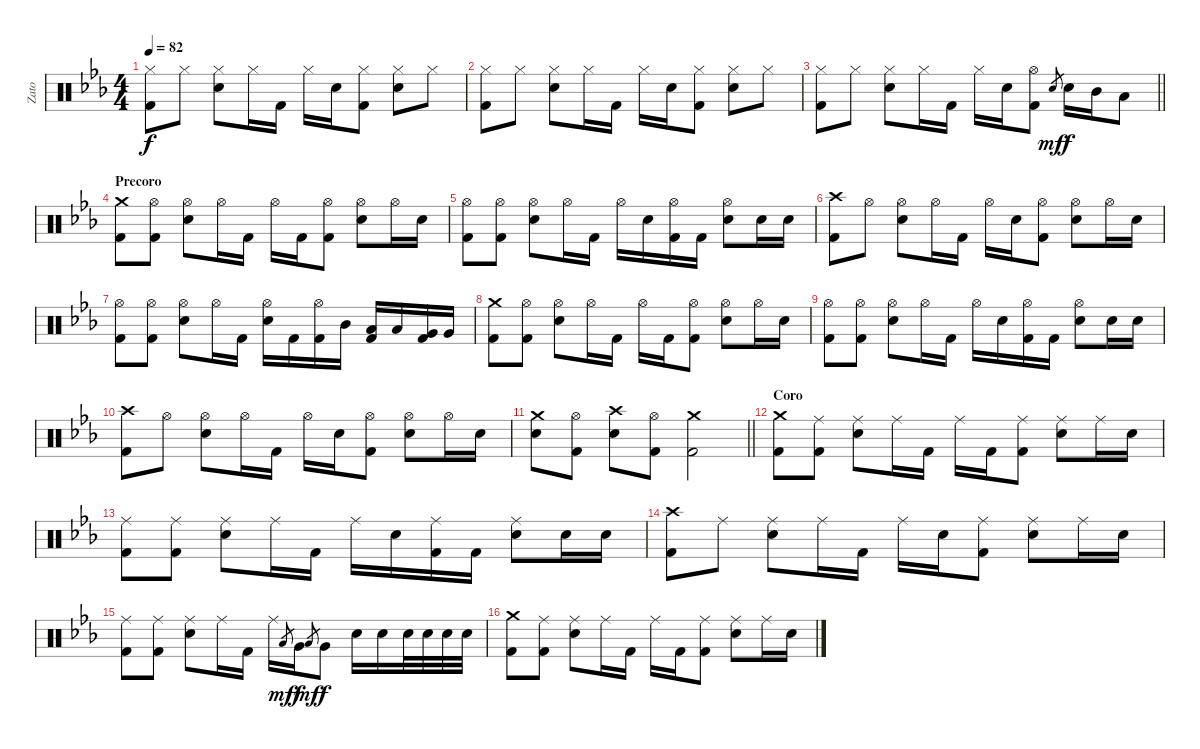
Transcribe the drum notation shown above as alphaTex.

\track ("Zato" "Zato") {instrument percussion}
\staff {score}
\articulation defaults
\ts (4 4)
\tempo 82
\clef neutral
\ks cminor
("Hi-Hat (closed)" "Kick (hit) 2").8{dy f} "Hi-Hat (closed)".8 ("Hi-Hat (closed)" "Electric Snare (hit)").8 "Hi-Hat (closed)".16 "Kick (hit) 2".16 "Hi-Hat (closed)".16 "Electric Snare (hit)".16 ("Hi-Hat (closed)" "Kick (hit) 2").8 ("Hi-Hat (closed)" "Electric Snare (hit)").8 "Hi-Hat (closed)".8 |
("Hi-Hat (closed)" "Kick (hit) 2").8 "Hi-Hat (closed)".8 ("Hi-Hat (closed)" "Electric Snare (hit)").8 "Hi-Hat (closed)".16 "Kick (hit) 2".16 "Hi-Hat (closed)".16 "Electric Snare (hit)".16 ("Hi-Hat (closed)" "Kick (hit) 2").8 ("Hi-Hat (closed)" "Electric Snare (hit)").8 "Hi-Hat (closed)".8 |
\barLineRight lightlight
("Hi-Hat (closed)" "Kick (hit) 2").8 "Hi-Hat (closed)".8 ("Hi-Hat (closed)" "Electric Snare (hit)").8 "Hi-Hat (closed)".16 "Kick (hit) 2".16 "Hi-Hat (closed)".16 "Electric Snare (hit)".16 ("Hi-Hat (open)" "Kick (hit) 2").8 "Electric Snare (hit)".8{gr dy mf} "Electric Snare (hit)".16{dy f} "Mid Tom (hit)".16 "Low Tom (hit)".8 |
\section ("" "Precoro")
("Crash medium (hit)" "Kick (hit) 2").8 ("Hi-Hat (open)" "Kick (hit) 2").8 ("Hi-Hat (open)" "Electric Snare (hit)").8 "Hi-Hat (open)".16 "Kick (hit) 2".16 "Hi-Hat (open)".16 "Kick (hit) 2".16 ("Hi-Hat (open)" "Kick (hit) 2").8 ("Hi-Hat (open)" "Electric Snare (hit)").8 "Hi-Hat (open)".16 "Electric Snare (hit)".16 |
("Hi-Hat (open)" "Kick (hit) 2").8 ("Hi-Hat (open)" "Kick (hit) 2").8 ("Hi-Hat (open)" "Electric Snare (hit)").8 "Hi-Hat (open)".16 "Kick (hit) 2".16 "Hi-Hat (open)".16 "Electric Snare (hit)".16 ("Hi-Hat (open)" "Kick (hit) 2").16 "Kick (hit) 2".16 ("Hi-Hat (open)" "Electric Snare (hit)").8 "Electric Snare (hit)".16 "Electric Snare (hit)".16 |
("Crash high (hit)" "Kick (hit) 2").8 "Hi-Hat (open)".8 ("Hi-Hat (open)" "Electric Snare (hit)").8 "Hi-Hat (open)".16 "Kick (hit) 2".16 "Hi-Hat (open)".16 "Electric Snare (hit)".16 ("Hi-Hat (open)" "Kick (hit) 2").8 ("Hi-Hat (open)" "Electric Snare (hit)").8 "Hi-Hat (open)".16 "Electric Snare (hit)".16 |
("Hi-Hat (open)" "Kick (hit) 2").8 ("Hi-Hat (open)" "Kick (hit) 2").8 ("Hi-Hat (open)" "Electric Snare (hit)").8 "Hi-Hat (open)".16 "Kick (hit) 2".16 ("Hi-Hat (open)" "Electric Snare (hit)").16 "Kick (hit) 2".16 ("Hi-Hat (open)" "Kick (hit) 2").16 "Mid Tom (hit)".16 ("Low Tom (hit)" "Kick (hit) 2").16 "Low Tom (hit)".16 ("Very Low Tom (hit)" "Kick (hit) 2").16 "Very Low Tom (hit)".16 |
("Crash medium (hit)" "Kick (hit) 2").8 ("Hi-Hat (open)" "Kick (hit) 2").8 ("Hi-Hat (open)" "Electric Snare (hit)").8 "Hi-Hat (open)".16 "Kick (hit) 2".16 "Hi-Hat (open)".16 "Kick (hit) 2".16 ("Hi-Hat (open)" "Kick (hit) 2").8 ("Hi-Hat (open)" "Electric Snare (hit)").8 "Hi-Hat (open)".16 "Electric Snare (hit)".16 |
("Hi-Hat (open)" "Kick (hit) 2").8 ("Hi-Hat (open)" "Kick (hit) 2").8 ("Hi-Hat (open)" "Electric Snare (hit)").8 "Hi-Hat (open)".16 "Kick (hit) 2".16 "Hi-Hat (open)".16 "Electric Snare (hit)".16 ("Hi-Hat (open)" "Kick (hit) 2").16 "Kick (hit) 2".16 ("Hi-Hat (open)" "Electric Snare (hit)").8 "Electric Snare (hit)".16 "Electric Snare (hit)".16 |
("Crash high (hit)" "Kick (hit) 2").8 "Hi-Hat (open)".8 ("Hi-Hat (open)" "Electric Snare (hit)").8 "Hi-Hat (open)".16 "Kick (hit) 2".16 "Hi-Hat (open)".16 "Electric Snare (hit)".16 ("Hi-Hat (open)" "Kick (hit) 2").8 ("Hi-Hat (open)" "Electric Snare (hit)").8 "Hi-Hat (open)".16 "Electric Snare (hit)".16 |
\barLineRight lightlight
("Crash medium (hit)" "Electric Snare (hit)").8 ("Hi-Hat (open)" "Kick (hit) 2").8 ("Crash high (hit)" "Electric Snare (hit)").8 ("Hi-Hat (open)" "Kick (hit) 2").8 ("Crash medium (hit)" "Kick (hit) 2").2 |
\section ("" "Coro")
("Crash medium (hit)" "Kick (hit) 2").8 ("Ride (middle)" "Kick (hit) 2").8 ("Ride (middle)" "Electric Snare (hit)").8 "Ride (middle)".16 "Kick (hit) 2".16 "Ride (middle)".16 "Kick (hit) 2".16 ("Ride (middle)" "Kick (hit) 2").8 ("Ride (middle)" "Electric Snare (hit)").8 "Ride (middle)".16 "Electric Snare (hit)".16 |
("Ride (middle)" "Kick (hit) 2").8 ("Ride (middle)" "Kick (hit) 2").8 ("Ride (middle)" "Electric Snare (hit)").8 "Ride (middle)".16 "Kick (hit) 2".16 "Ride (middle)".16 "Electric Snare (hit)".16 ("Ride (middle)" "Kick (hit) 2").16 "Kick (hit) 2".16 ("Ride (middle)" "Electric Snare (hit)").8 "Electric Snare (hit)".16 "Electric Snare (hit)".16 |
("Crash high (hit)" "Kick (hit) 2").8 "Ride (middle)".8 ("Ride (middle)" "Electric Snare (hit)").8 "Ride (middle)".16 "Kick (hit) 2".16 "Ride (middle)".16 "Electric Snare (hit)".16 ("Ride (middle)" "Kick (hit) 2").8 ("Ride (middle)" "Electric Snare (hit)").8 "Ride (middle)".16 "Electric Snare (hit)".16 |
("Ride (middle)" "Kick (hit) 2").8 ("Ride (middle)" "Kick (hit) 2").8 ("Ride (middle)" "Electric Snare (hit)").8 "Ride (middle)".16 "Kick (hit) 2".16 "Ride (middle)".16 "Low Tom (hit)".8{gr dy mf} "Very Low Tom (hit)".16{dy f} "Low Tom (hit)".8{gr dy mf} "Very Low Tom (hit)".8{dy f} "Electric Snare (hit)".16 "Electric Snare (hit)".16 "Electric Snare (hit)".32 "Electric Snare (hit)".32 "Electric Snare (hit)".32 "Electric Snare (hit)".32 |
("Crash medium (hit)" "Kick (hit) 2").8 ("Ride (middle)" "Kick (hit) 2").8 ("Ride (middle)" "Electric Snare (hit)").8 "Ride (middle)".16 "Kick (hit) 2".16 "Ride (middle)".16 "Kick (hit) 2".16 ("Ride (middle)" "Kick (hit) 2").8 ("Ride (middle)" "Electric Snare (hit)").8 "Ride (middle)".16 "Electric Snare (hit)".16
